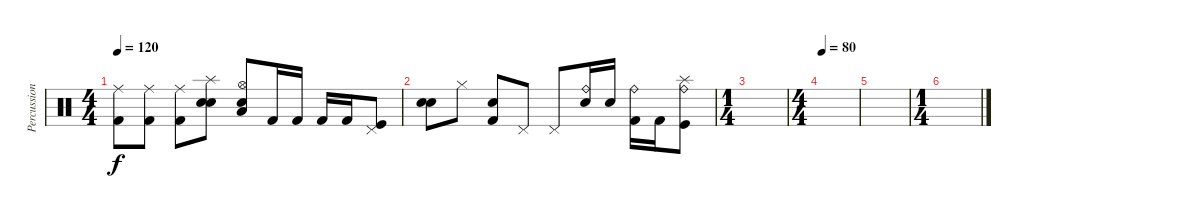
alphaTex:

\track ("Percussion" "Percussion") {instrument percussion}
\staff {score}
\articulation defaults
\ts (4 4)
\tempo 120
\clef neutral
\ks c
("Ride (middle)" "Kick (hit) 2").8{dy f} ("Ride (middle)" "Kick (hit) 2").8 ("Ride (middle)" "Kick (hit) 2").8 ("Splash (hit)" "Snare (hit) 2" "Electric Snare (hit)").8 ("Hi-Hat (open)" "Low Tom (hit)" "Electric Snare (hit)").8 "Kick (hit) 2".16 "Kick (hit) 2".16 "Kick (hit) 2".16 "Kick (hit) 2".16 ("Pedal Hi-Hat (hit)" "Kick (hit)").8 |
("Electric Snare (hit)" "Snare (hit) 2").8 "Hi-Hat (closed)".8 ("Snare (hit) 2" "Kick (hit) 2").8 "Pedal Hi-Hat (hit)".8 "Pedal Hi-Hat (hit)".8 ("Electric Snare (hit)" "Ride (bell)").16 "Electric Snare (hit)".16 ("Kick (hit) 2" "Ride (bell)").16 "Kick (hit) 2".16 ("Splash (hit)" "Kick (hit)" "Ride (bell)").8 |
\ts (1 4)
|
\ts (4 4)
\tempo 80
|
|
\ts (1 4)
